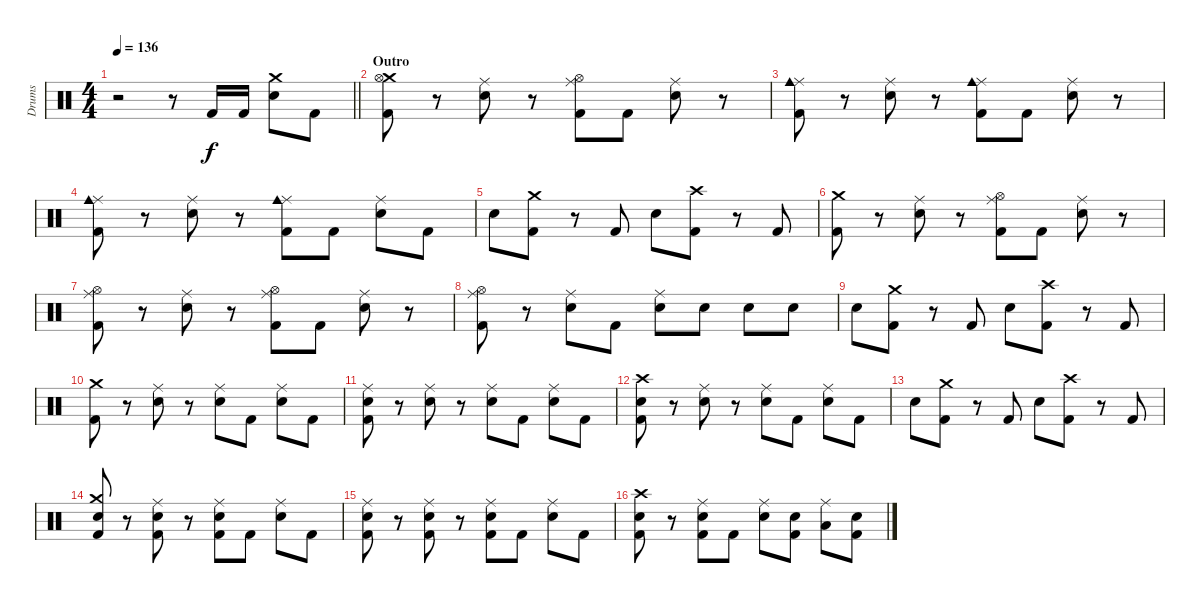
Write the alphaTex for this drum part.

\track ("Drums" "Drums") {instrument percussion}
\staff {score}
\articulation defaults
\ts (4 4)
\tempo 136
\clef neutral
\barLineRight lightlight
\ks c
r.2{dy f} r.8 "Kick (hit) 2".16 "Kick (hit) 2".16 ("Crash medium (hit)" "Electric Snare (hit)").8 "Kick (hit) 2".8 |
\section ("" "Outro")
("Crash medium (hit)" "Hi-Hat (open)" "Kick (hit) 2").8 r.8 ("Ride (middle)" "Electric Snare (hit)").8 r.8 ("Ride (middle)" "Hi-Hat (open)" "Kick (hit) 2").8 "Kick (hit) 2".8 ("Ride (middle)" "Electric Snare (hit)").8 r.8 |
("Ride (middle)" "Cowbell medium (hit)" "Kick (hit) 2").8 r.8 ("Ride (middle)" "Electric Snare (hit)").8 r.8 ("Ride (middle)" "Cowbell medium (hit)" "Kick (hit) 2").8 "Kick (hit) 2".8 ("Ride (middle)" "Electric Snare (hit)").8 r.8 |
("Ride (middle)" "Cowbell medium (hit)" "Kick (hit) 2").8 r.8 ("Ride (middle)" "Electric Snare (hit)").8 r.8 ("Ride (middle)" "Cowbell medium (hit)" "Kick (hit) 2").8 "Kick (hit) 2".8 ("Ride (middle)" "Electric Snare (hit)").8 "Kick (hit) 2".8 |
"Electric Snare (hit)".8 ("Crash medium (hit)" "Kick (hit) 2").8 r.8 "Kick (hit) 2".8 "Electric Snare (hit)".8 ("Crash high (hit)" "Kick (hit) 2").8 r.8 "Kick (hit) 2".8 |
("Crash medium (hit)" "Kick (hit) 2").8 r.8 ("Ride (middle)" "Electric Snare (hit)").8 r.8 ("Ride (middle)" "Hi-Hat (open)" "Kick (hit) 2").8 "Kick (hit) 2".8 ("Ride (middle)" "Electric Snare (hit)").8 r.8 |
("Ride (middle)" "Hi-Hat (open)" "Kick (hit) 2").8 r.8 ("Ride (middle)" "Electric Snare (hit)").8 r.8 ("Ride (middle)" "Hi-Hat (open)" "Kick (hit) 2").8 "Kick (hit) 2".8 ("Ride (middle)" "Electric Snare (hit)").8 r.8 |
("Ride (middle)" "Hi-Hat (open)" "Kick (hit) 2").8 r.8 ("Ride (middle)" "Electric Snare (hit)").8 "Kick (hit) 2".8 ("Ride (middle)" "Electric Snare (hit)").8 "Electric Snare (hit)".8 "Electric Snare (hit)".8 "Electric Snare (hit)".8 |
"Electric Snare (hit)".8 ("Crash medium (hit)" "Kick (hit) 2").8 r.8 "Kick (hit) 2".8 "Electric Snare (hit)".8 ("Crash high (hit)" "Kick (hit) 2").8 r.8 "Kick (hit) 2".8 |
("Crash medium (hit)" "Kick (hit) 2").8 r.8 ("Ride (middle)" "Electric Snare (hit)").8 r.8 ("Ride (middle)" "Electric Snare (hit)").8 "Kick (hit) 2".8 ("Ride (middle)" "Electric Snare (hit)").8 "Kick (hit) 2".8 |
("Ride (middle)" "Electric Snare (hit)" "Kick (hit) 2").8 r.8 ("Ride (middle)" "Electric Snare (hit)").8 r.8 ("Ride (middle)" "Electric Snare (hit)").8 "Kick (hit) 2".8 ("Ride (middle)" "Electric Snare (hit)").8 "Kick (hit) 2".8 |
("Crash high (hit)" "Electric Snare (hit)" "Kick (hit) 2").8 r.8 ("Ride (middle)" "Electric Snare (hit)").8 r.8 ("Ride (middle)" "Electric Snare (hit)").8 "Kick (hit) 2".8 ("Ride (middle)" "Electric Snare (hit)").8 "Kick (hit) 2".8 |
"Electric Snare (hit)".8 ("Crash medium (hit)" "Kick (hit) 2").8 r.8 "Kick (hit) 2".8 "Electric Snare (hit)".8 ("Crash high (hit)" "Kick (hit) 2").8 r.8 "Kick (hit) 2".8 |
("Crash medium (hit)" "Electric Snare (hit)" "Kick (hit) 2").8 r.8 ("Ride (middle)" "Electric Snare (hit)" "Kick (hit) 2").8 r.8 ("Ride (middle)" "Electric Snare (hit)" "Kick (hit) 2").8 "Kick (hit) 2".8 ("Ride (middle)" "Electric Snare (hit)").8 "Kick (hit) 2".8 |
("Ride (middle)" "Electric Snare (hit)" "Kick (hit) 2").8 r.8 ("Ride (middle)" "Electric Snare (hit)" "Kick (hit) 2").8 r.8 ("Ride (middle)" "Electric Snare (hit)" "Kick (hit) 2").8 "Kick (hit) 2".8 ("Ride (middle)" "Electric Snare (hit)").8 "Kick (hit) 2".8 |
("Crash high (hit)" "Electric Snare (hit)" "Kick (hit) 2").8 r.8 ("Ride (middle)" "Electric Snare (hit)" "Kick (hit) 2").8 "Kick (hit) 2".8 ("Ride (middle)" "Electric Snare (hit)").8 ("Electric Snare (hit)" "Kick (hit) 2").8 ("Ride (middle)" "Low Tom (hit)").8 ("Electric Snare (hit)" "Kick (hit) 2").8
